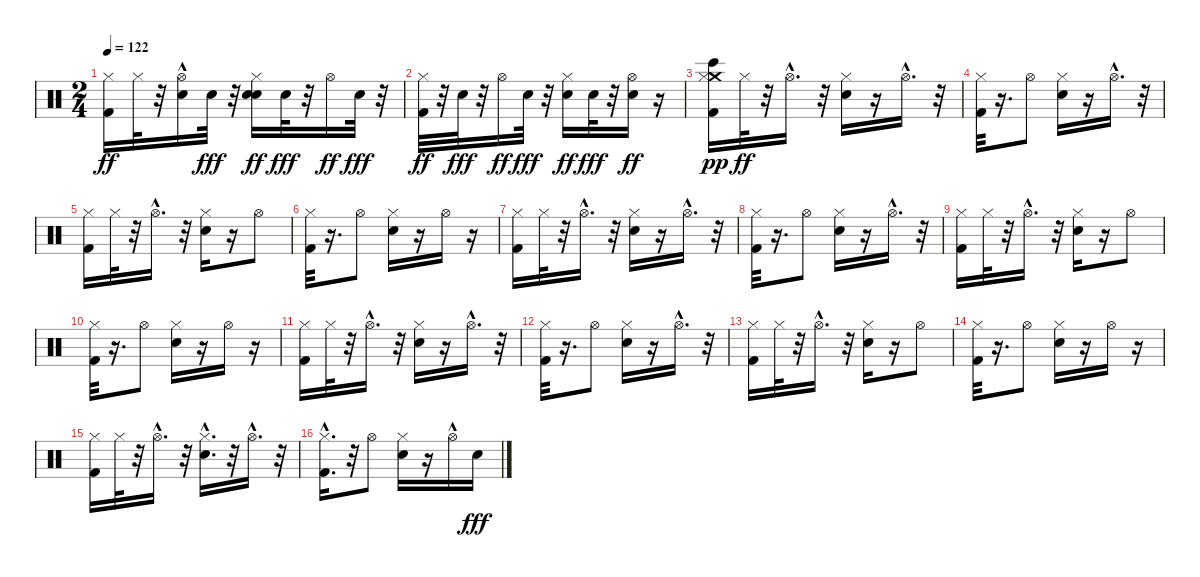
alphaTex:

\track "" {instrument percussion}
\staff {score}
\articulation defaults
\ts (2 4)
\tempo 122
\clef neutral
\ks c
("Kick (hit) 2" "Hi-Hat (closed)").16{dy ff} "Hi-Hat (closed)".32 r.32 ("Hand Clap (hit)" "Hi-Hat (open)"{hac}).16 "Hand Clap (hit)".32{dy fff} r.32 ("Hand Clap (hit)" "Snare (hit) 2" "Hi-Hat (closed)").16{dy ff} "Hand Clap (hit)".32{dy fff} r.32 "Hi-Hat (open)".16{dy ff} "Hand Clap (hit)".32{dy fff} r.32 |
("Kick (hit) 2" "Hi-Hat (closed)").32{dy ff} r.32 "Hand Clap (hit)".32{dy fff} r.32 "Hi-Hat (open)".16{dy ff} "Hand Clap (hit)".32{dy fff} r.32 ("Snare (hit) 2" "Hi-Hat (closed)").16{dy ff} "Hand Clap (hit)".32{dy fff} r.32 ("Hand Clap (hit)" "Hi-Hat (open)").16{dy ff} r.16 |
("Kick (hit) 2" "Crash medium (hit)" "Hi-Hat (closed)" "Bongo High (hit)").16{dy pp} "Hi-Hat (closed)".32{dy ff} r.32 "Hi-Hat (open)"{hac}.16{d} r.32 ("Snare (hit) 2" "Hi-Hat (closed)").16 r.16 "Hi-Hat (open)"{hac}.16{d} r.32 |
("Kick (hit) 2" "Hi-Hat (closed)").32 r.16{d} "Hi-Hat (open)".8 ("Snare (hit) 2" "Hi-Hat (closed)").16 r.16 "Hi-Hat (open)"{hac}.16{d} r.32 |
("Kick (hit) 2" "Hi-Hat (closed)").16 "Hi-Hat (closed)".32 r.32 "Hi-Hat (open)"{hac}.16{d} r.32 ("Snare (hit) 2" "Hi-Hat (closed)").16 r.16 "Hi-Hat (open)".8 |
("Kick (hit) 2" "Hi-Hat (closed)").32 r.16{d} "Hi-Hat (open)".8 ("Snare (hit) 2" "Hi-Hat (closed)").16 r.16 "Hi-Hat (open)".16 r.16 |
("Kick (hit) 2" "Hi-Hat (closed)").16 "Hi-Hat (closed)".32 r.32 "Hi-Hat (open)"{hac}.16{d} r.32 ("Snare (hit) 2" "Hi-Hat (closed)").16 r.16 "Hi-Hat (open)"{hac}.16{d} r.32 |
("Kick (hit) 2" "Hi-Hat (closed)").32 r.16{d} "Hi-Hat (open)".8 ("Snare (hit) 2" "Hi-Hat (closed)").16 r.16 "Hi-Hat (open)"{hac}.16{d} r.32 |
("Kick (hit) 2" "Hi-Hat (closed)").16 "Hi-Hat (closed)".32 r.32 "Hi-Hat (open)"{hac}.16{d} r.32 ("Snare (hit) 2" "Hi-Hat (closed)").16 r.16 "Hi-Hat (open)".8 |
("Kick (hit) 2" "Hi-Hat (closed)").32 r.16{d} "Hi-Hat (open)".8 ("Snare (hit) 2" "Hi-Hat (closed)").16 r.16 "Hi-Hat (open)".16 r.16 |
("Kick (hit) 2" "Hi-Hat (closed)").16 "Hi-Hat (closed)".32 r.32 "Hi-Hat (open)"{hac}.16{d} r.32 ("Snare (hit) 2" "Hi-Hat (closed)").16 r.16 "Hi-Hat (open)"{hac}.16{d} r.32 |
("Kick (hit) 2" "Hi-Hat (closed)").32 r.16{d} "Hi-Hat (open)".8 ("Snare (hit) 2" "Hi-Hat (closed)").16 r.16 "Hi-Hat (open)"{hac}.16{d} r.32 |
("Kick (hit) 2" "Hi-Hat (closed)").16 "Hi-Hat (closed)".32 r.32 "Hi-Hat (open)"{hac}.16{d} r.32 ("Snare (hit) 2" "Hi-Hat (closed)").16 r.16 "Hi-Hat (open)".8 |
("Kick (hit) 2" "Hi-Hat (closed)").32 r.16{d} "Hi-Hat (open)".8 ("Snare (hit) 2" "Hi-Hat (closed)").16 r.16 "Hi-Hat (open)".16 r.16 |
("Kick (hit) 2" "Hi-Hat (closed)").16 "Hi-Hat (closed)".32 r.32 "Hi-Hat (open)"{hac}.16{d} r.32 ("Snare (hit) 2"{hac} "Hi-Hat (closed)").16{d} r.32 "Hi-Hat (open)"{hac}.16{d} r.32 |
("Kick (hit) 2"{hac} "Hi-Hat (closed)").16{d} r.32 "Hi-Hat (open)".8 ("Snare (hit) 2" "Hi-Hat (closed)").16 r.16 "Hi-Hat (open)"{hac}.16 "Snare (hit) 2".16{dy fff}
